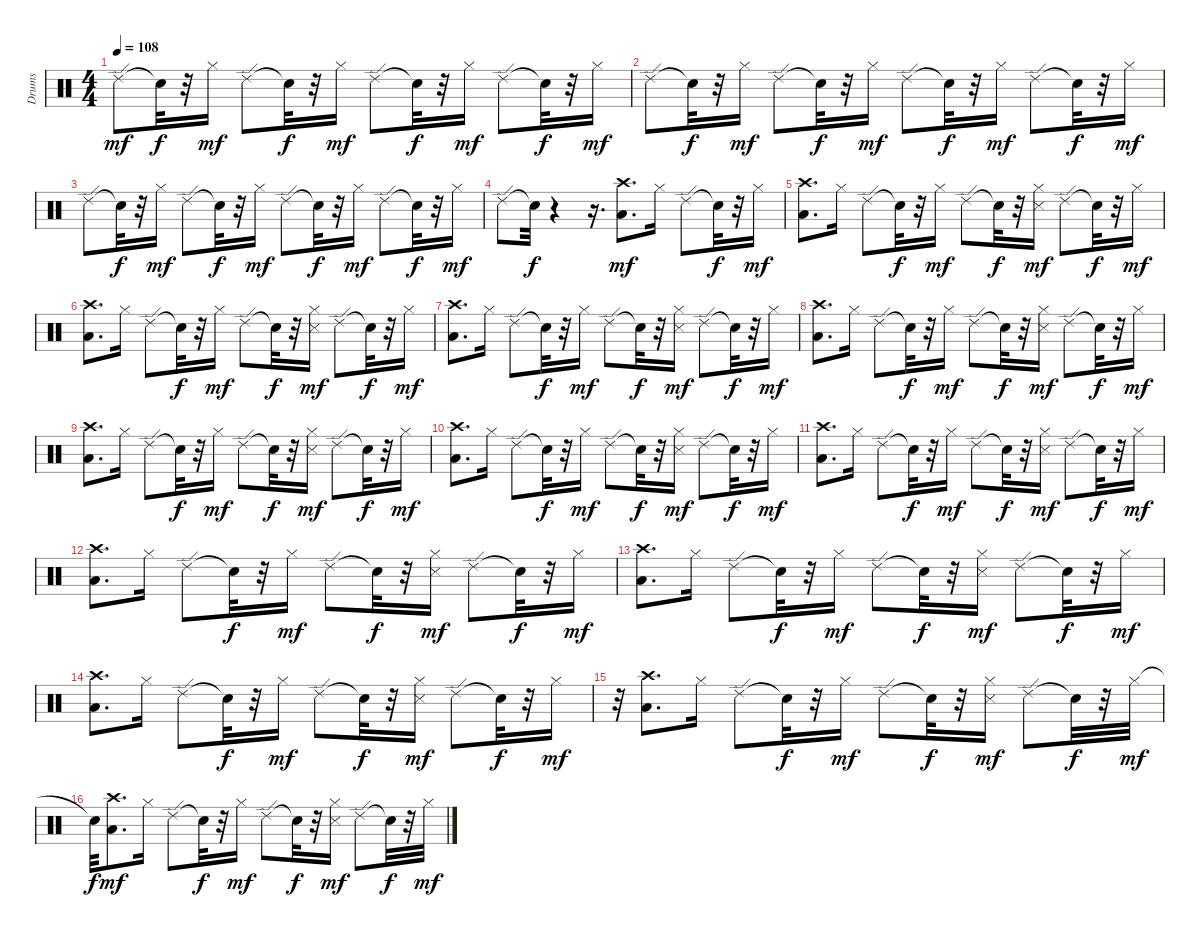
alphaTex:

\track ("Drums" "Drums") {instrument percussion}
\staff {score}
\articulation defaults
\ts (4 4)
\tempo 108
\clef neutral
\ks c "Ride (edge) 2".8{dy mf} "Snare (hit)"{t}.32{dy f}
r.32 "Hi-Hat (closed)".16{dy mf} "Ride (edge) 2".8 "Snare (hit)"{t}.32{dy f} r.32 "Hi-Hat (closed)".16{dy mf} "Ride (edge) 2".8 "Snare (hit)"{t}.32{dy f} r.32 "Hi-Hat (closed)".16{dy mf} "Ride (edge) 2".8 "Snare (hit)"{t}.32{dy f} r.32 "Hi-Hat (closed)".16{dy mf} |
"Ride (edge) 2".8 "Snare (hit)"{t}.32{dy f} r.32 "Hi-Hat (closed)".16{dy mf} "Ride (edge) 2".8 "Snare (hit)"{t}.32{dy f} r.32 "Hi-Hat (closed)".16{dy mf} "Ride (edge) 2".8 "Snare (hit)"{t}.32{dy f} r.32 "Hi-Hat (closed)".16{dy mf} "Ride (edge) 2".8 "Snare (hit)"{t}.32{dy f} r.32 "Hi-Hat (closed)".16{dy mf} |
"Ride (edge) 2".8 "Snare (hit)"{t}.32{dy f} r.32 "Hi-Hat (closed)".16{dy mf} "Ride (edge) 2".8 "Snare (hit)"{t}.32{dy f} r.32 "Hi-Hat (closed)".16{dy mf} "Ride (edge) 2".8 "Snare (hit)"{t}.32{dy f} r.32 "Hi-Hat (closed)".16{dy mf} "Ride (edge) 2".8 "Snare (hit)"{t}.32{dy f} r.32 "Hi-Hat (closed)".16{dy mf} |
"Ride (edge) 2".8 "Snare (hit)"{t}.32{dy f} r.4 r.16{d} ("Crash high (hit)" "Low Floor Tom (hit)").8{d dy mf} "Hi-Hat (closed)".16 "Ride (edge) 2".8 "Snare (hit)"{t}.32{dy f} r.32 "Hi-Hat (closed)".16{dy mf} |
("Crash high (hit)" "Low Floor Tom (hit)").8{d} "Hi-Hat (closed)".16 "Ride (edge) 2".8 "Snare (hit)"{t}.32{dy f} r.32 "Hi-Hat (closed)".16{dy mf} "Ride (edge) 2".8 "Snare (hit)"{t}.32{dy f} r.32 ("Metronome (hit)" "Hi-Hat (closed)").16{dy mf} "Ride (edge) 2".8 "Snare (hit)"{t}.32{dy f} r.32 "Hi-Hat (closed)".16{dy mf} |
("Crash high (hit)" "Low Floor Tom (hit)").8{d} "Hi-Hat (closed)".16 "Ride (edge) 2".8 "Snare (hit)"{t}.32{dy f} r.32 "Hi-Hat (closed)".16{dy mf} "Ride (edge) 2".8 "Snare (hit)"{t}.32{dy f} r.32 ("Metronome (hit)" "Hi-Hat (closed)").16{dy mf} "Ride (edge) 2".8 "Snare (hit)"{t}.32{dy f} r.32 "Hi-Hat (closed)".16{dy mf} |
("Crash high (hit)" "Low Floor Tom (hit)").8{d} "Hi-Hat (closed)".16 "Ride (edge) 2".8 "Snare (hit)"{t}.32{dy f} r.32 "Hi-Hat (closed)".16{dy mf} "Ride (edge) 2".8 "Snare (hit)"{t}.32{dy f} r.32 ("Metronome (hit)" "Hi-Hat (closed)").16{dy mf} "Ride (edge) 2".8 "Snare (hit)"{t}.32{dy f} r.32 "Hi-Hat (closed)".16{dy mf} |
("Crash high (hit)" "Low Floor Tom (hit)").8{d} "Hi-Hat (closed)".16 "Ride (edge) 2".8 "Snare (hit)"{t}.32{dy f} r.32 "Hi-Hat (closed)".16{dy mf} "Ride (edge) 2".8 "Snare (hit)"{t}.32{dy f} r.32 ("Metronome (hit)" "Hi-Hat (closed)").16{dy mf} "Ride (edge) 2".8 "Snare (hit)"{t}.32{dy f} r.32 "Hi-Hat (closed)".16{dy mf} |
("Crash high (hit)" "Low Floor Tom (hit)").8{d} "Hi-Hat (closed)".16 "Ride (edge) 2".8 "Snare (hit)"{t}.32{dy f} r.32 "Hi-Hat (closed)".16{dy mf} "Ride (edge) 2".8 "Snare (hit)"{t}.32{dy f} r.32 ("Metronome (hit)" "Hi-Hat (closed)").16{dy mf} "Ride (edge) 2".8 "Snare (hit)"{t}.32{dy f} r.32 "Hi-Hat (closed)".16{dy mf} |
("Crash high (hit)" "Low Floor Tom (hit)").8{d} "Hi-Hat (closed)".16 "Ride (edge) 2".8 "Snare (hit)"{t}.32{dy f} r.32 "Hi-Hat (closed)".16{dy mf} "Ride (edge) 2".8 "Snare (hit)"{t}.32{dy f} r.32 ("Hi-Hat (closed)" "Metronome (hit)").16{dy mf} "Ride (edge) 2".8 "Snare (hit)"{t}.32{dy f} r.32 "Hi-Hat (closed)".16{dy mf} |
("Crash high (hit)" "Low Floor Tom (hit)").8{d} "Hi-Hat (closed)".16 "Ride (edge) 2".8 "Snare (hit)"{t}.32{dy f} r.32 "Hi-Hat (closed)".16{dy mf} "Ride (edge) 2".8 "Snare (hit)"{t}.32{dy f} r.32 ("Metronome (hit)" "Hi-Hat (closed)").16{dy mf} "Ride (edge) 2".8 "Snare (hit)"{t}.32{dy f} r.32 "Hi-Hat (closed)".16{dy mf} |
("Crash high (hit)" "Low Floor Tom (hit)").8{d} "Hi-Hat (closed)".16 "Ride (edge) 2".8 "Snare (hit)"{t}.32{dy f} r.32 "Hi-Hat (closed)".16{dy mf} "Ride (edge) 2".8 "Snare (hit)"{t}.32{dy f} r.32 ("Metronome (hit)" "Hi-Hat (closed)").16{dy mf} "Ride (edge) 2".8 "Snare (hit)"{t}.32{dy f} r.32 "Hi-Hat (closed)".16{dy mf} |
("Crash high (hit)" "Low Floor Tom (hit)").8{d} "Hi-Hat (closed)".16 "Ride (edge) 2".8 "Snare (hit)"{t}.32{dy f} r.32 "Hi-Hat (closed)".16{dy mf} "Ride (edge) 2".8 "Snare (hit)"{t}.32{dy f} r.32 ("Metronome (hit)" "Hi-Hat (closed)").16{dy mf} "Ride (edge) 2".8 "Snare (hit)"{t}.32{dy f} r.32 "Hi-Hat (closed)".16{dy mf} |
("Crash high (hit)" "Low Floor Tom (hit)").8{d} "Hi-Hat (closed)".16 "Ride (edge) 2".8 "Snare (hit)"{t}.32{dy f} r.32 "Hi-Hat (closed)".16{dy mf} "Ride (edge) 2".8 "Snare (hit)"{t}.32{dy f} r.32 ("Metronome (hit)" "Hi-Hat (closed)").16{dy mf} "Ride (edge) 2".8 "Snare (hit)"{t}.32{dy f} r.32 "Hi-Hat (closed)".16{dy mf} |
r.32 ("Crash high (hit)" "Low Floor Tom (hit)").8{d} "Hi-Hat (closed)".16 "Ride (edge) 2".8 "Snare (hit)"{t}.32{dy f} r.32 "Hi-Hat (closed)".16{dy mf} "Ride (edge) 2".8 "Snare (hit)"{t}.32{dy f} r.32 ("Metronome (hit)" "Hi-Hat (closed)").16{dy mf} "Ride (edge) 2".8 "Snare (hit)"{t}.32{dy f} r.32 "Hi-Hat (closed)".32{dy mf} |
"Snare (hit)"{t}.32{dy f} ("Crash high (hit)" "Low Floor Tom (hit)").8{d dy mf} "Hi-Hat (closed)".16 "Ride (edge) 2".8 "Snare (hit)"{t}.32{dy f} r.32 "Hi-Hat (closed)".16{dy mf} "Ride (edge) 2".8 "Snare (hit)"{t}.32{dy f} r.32 ("Hi-Hat (closed)" "Metronome (hit)").16{dy mf} "Ride (edge) 2".8 "Snare (hit)"{t}.32{dy f} r.32 "Hi-Hat (closed)".32{dy mf}
